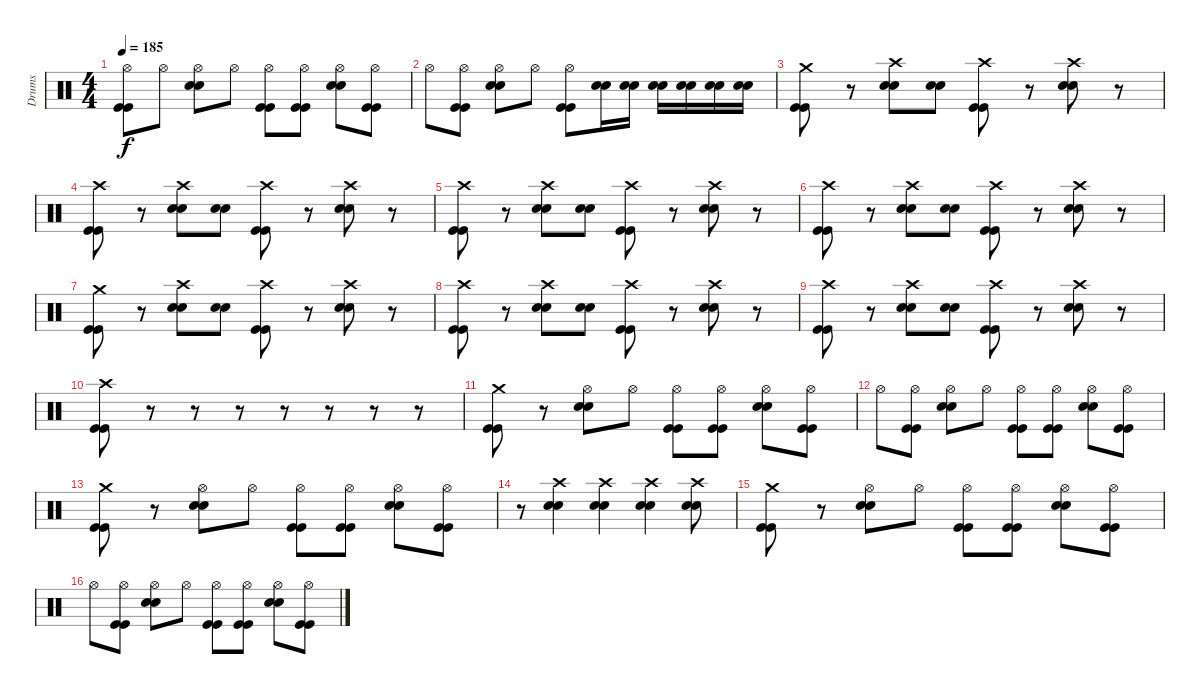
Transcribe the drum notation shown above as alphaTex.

\track ("Drums" "Drums") {instrument percussion}
\staff {score}
\articulation defaults
\ts (4 4)
\tempo 185
\clef neutral
\ks c
("Hi-Hat (open)" "Kick (hit)" "Kick (hit)").8{dy f} "Hi-Hat (open)".8 ("Hi-Hat (open)" "Electric Snare (hit)" "Electric Snare (hit)").8 "Hi-Hat (open)".8 ("Hi-Hat (open)" "Kick (hit)" "Kick (hit)").8 ("Hi-Hat (open)" "Kick (hit)" "Kick (hit)").8 ("Hi-Hat (open)" "Electric Snare (hit)" "Electric Snare (hit)").8 ("Hi-Hat (open)" "Kick (hit)" "Kick (hit)").8 |
"Hi-Hat (open)".8 ("Hi-Hat (open)" "Kick (hit)" "Kick (hit)").8 ("Hi-Hat (open)" "Electric Snare (hit)" "Electric Snare (hit)").8 "Hi-Hat (open)".8 ("Hi-Hat (open)" "Kick (hit)" "Kick (hit)").8 ("Electric Snare (hit)" "Electric Snare (hit)").16 ("Electric Snare (hit)" "Electric Snare (hit)").16 ("Electric Snare (hit)" "Electric Snare (hit)").16 ("Electric Snare (hit)" "Electric Snare (hit)").16 ("Electric Snare (hit)" "Electric Snare (hit)").16 ("Electric Snare (hit)" "Electric Snare (hit)").16 |
("Crash medium (hit)" "Kick (hit)" "Kick (hit)").8 r.8 ("Crash high (hit)" "Electric Snare (hit)" "Electric Snare (hit)").8 ("Electric Snare (hit)" "Electric Snare (hit)").8 ("Crash high (hit)" "Kick (hit)" "Kick (hit)").8 r.8 ("Crash high (hit)" "Electric Snare (hit)" "Electric Snare (hit)").8 r.8 |
("Crash high (hit)" "Kick (hit)" "Kick (hit)").8 r.8 ("Crash high (hit)" "Electric Snare (hit)" "Electric Snare (hit)").8 ("Electric Snare (hit)" "Electric Snare (hit)").8 ("Crash high (hit)" "Kick (hit)" "Kick (hit)").8 r.8 ("Crash high (hit)" "Electric Snare (hit)" "Electric Snare (hit)").8 r.8 |
("Crash high (hit)" "Kick (hit)" "Kick (hit)").8 r.8 ("Crash high (hit)" "Electric Snare (hit)" "Electric Snare (hit)").8 ("Electric Snare (hit)" "Electric Snare (hit)").8 ("Crash high (hit)" "Kick (hit)" "Kick (hit)").8 r.8 ("Crash high (hit)" "Electric Snare (hit)" "Electric Snare (hit)").8 r.8 |
("Crash high (hit)" "Kick (hit)" "Kick (hit)").8 r.8 ("Crash high (hit)" "Electric Snare (hit)" "Electric Snare (hit)").8 ("Electric Snare (hit)" "Electric Snare (hit)").8 ("Crash high (hit)" "Kick (hit)" "Kick (hit)").8 r.8 ("Crash high (hit)" "Electric Snare (hit)" "Electric Snare (hit)").8 r.8 |
("Crash medium (hit)" "Kick (hit)" "Kick (hit)").8 r.8 ("Crash high (hit)" "Electric Snare (hit)" "Electric Snare (hit)").8 ("Electric Snare (hit)" "Electric Snare (hit)").8 ("Crash high (hit)" "Kick (hit)" "Kick (hit)").8 r.8 ("Crash high (hit)" "Electric Snare (hit)" "Electric Snare (hit)").8 r.8 |
("Crash high (hit)" "Kick (hit)" "Kick (hit)").8 r.8 ("Crash high (hit)" "Electric Snare (hit)" "Electric Snare (hit)").8 ("Electric Snare (hit)" "Electric Snare (hit)").8 ("Crash high (hit)" "Kick (hit)" "Kick (hit)").8 r.8 ("Crash high (hit)" "Electric Snare (hit)" "Electric Snare (hit)").8 r.8 |
("Crash high (hit)" "Kick (hit)" "Kick (hit)").8 r.8 ("Crash high (hit)" "Electric Snare (hit)" "Electric Snare (hit)").8 ("Electric Snare (hit)" "Electric Snare (hit)").8 ("Crash high (hit)" "Kick (hit)" "Kick (hit)").8 r.8 ("Crash high (hit)" "Electric Snare (hit)" "Electric Snare (hit)").8 r.8 |
("Crash high (hit)" "Kick (hit)" "Kick (hit)").8 r.8 r.8 r.8 r.8 r.8 r.8 r.8 |
("Crash medium (hit)" "Kick (hit)" "Kick (hit)").8 r.8 ("Hi-Hat (open)" "Electric Snare (hit)" "Electric Snare (hit)").8 "Hi-Hat (open)".8 ("Hi-Hat (open)" "Kick (hit)" "Kick (hit)").8 ("Hi-Hat (open)" "Kick (hit)" "Kick (hit)").8 ("Hi-Hat (open)" "Electric Snare (hit)" "Electric Snare (hit)").8 ("Hi-Hat (open)" "Kick (hit)" "Kick (hit)").8 |
"Hi-Hat (open)".8 ("Hi-Hat (open)" "Kick (hit)" "Kick (hit)").8 ("Hi-Hat (open)" "Electric Snare (hit)" "Electric Snare (hit)").8 "Hi-Hat (open)".8 ("Hi-Hat (open)" "Kick (hit)" "Kick (hit)").8 ("Hi-Hat (open)" "Kick (hit)" "Kick (hit)").8 ("Hi-Hat (open)" "Electric Snare (hit)" "Electric Snare (hit)").8 ("Hi-Hat (open)" "Kick (hit)" "Kick (hit)").8 |
("Crash medium (hit)" "Kick (hit)" "Kick (hit)").8 r.8 ("Hi-Hat (open)" "Electric Snare (hit)" "Electric Snare (hit)").8 "Hi-Hat (open)".8 ("Hi-Hat (open)" "Kick (hit)" "Kick (hit)").8 ("Hi-Hat (open)" "Kick (hit)" "Kick (hit)").8 ("Hi-Hat (open)" "Electric Snare (hit)" "Electric Snare (hit)").8 ("Hi-Hat (open)" "Kick (hit)" "Kick (hit)").8 |
r.8 ("Crash high (hit)" "Electric Snare (hit)" "Electric Snare (hit)").4 ("Crash high (hit)" "Electric Snare (hit)" "Electric Snare (hit)").4 ("Crash high (hit)" "Electric Snare (hit)" "Electric Snare (hit)").4 ("Crash high (hit)" "Electric Snare (hit)" "Electric Snare (hit)").8 |
("Crash medium (hit)" "Kick (hit)" "Kick (hit)").8 r.8 ("Hi-Hat (open)" "Electric Snare (hit)" "Electric Snare (hit)").8 "Hi-Hat (open)".8 ("Hi-Hat (open)" "Kick (hit)" "Kick (hit)").8 ("Hi-Hat (open)" "Kick (hit)" "Kick (hit)").8 ("Hi-Hat (open)" "Electric Snare (hit)" "Electric Snare (hit)").8 ("Hi-Hat (open)" "Kick (hit)" "Kick (hit)").8 |
"Hi-Hat (open)".8 ("Hi-Hat (open)" "Kick (hit)" "Kick (hit)").8 ("Hi-Hat (open)" "Electric Snare (hit)" "Electric Snare (hit)").8 "Hi-Hat (open)".8 ("Hi-Hat (open)" "Kick (hit)" "Kick (hit)").8 ("Hi-Hat (open)" "Kick (hit)" "Kick (hit)").8 ("Hi-Hat (open)" "Electric Snare (hit)" "Electric Snare (hit)").8 ("Hi-Hat (open)" "Kick (hit)" "Kick (hit)").8
